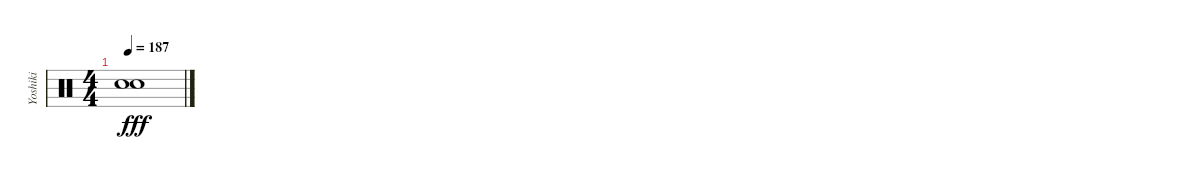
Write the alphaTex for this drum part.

\track ("Yoshiki" "Yoshiki") {instrument percussion}
\staff {score}
\articulation defaults
\ts (4 4)
\tempo 187
\clef neutral
\ks c
("Snare (hit)"{t} "Snare (hit)"{t}).1{dy fff}
